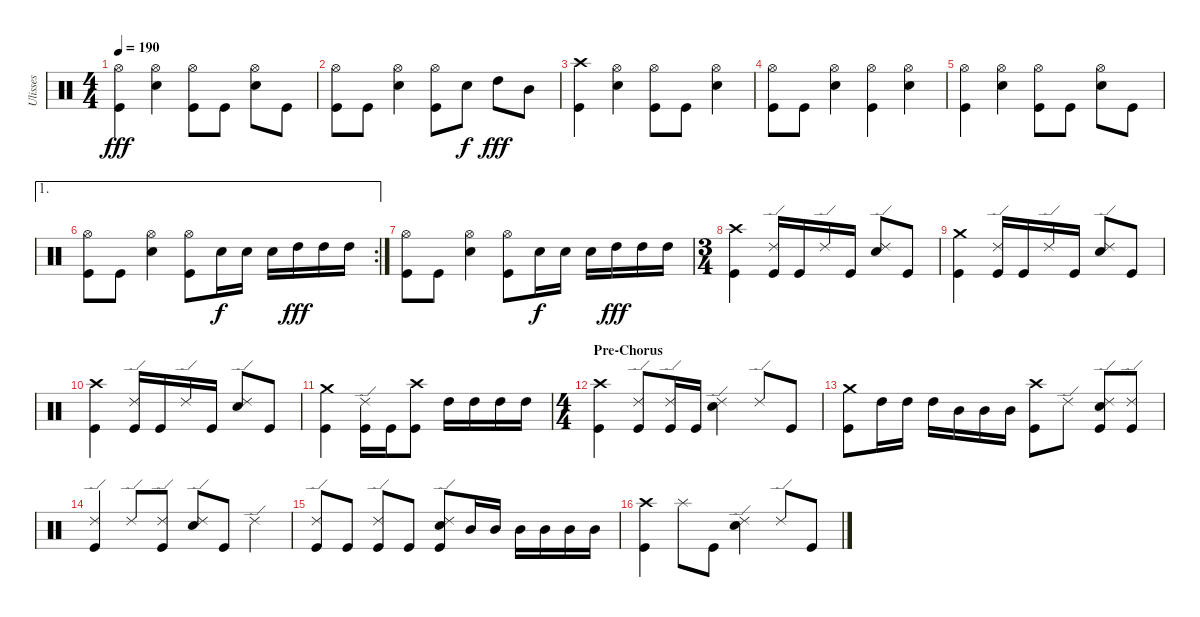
\track ("Ulisses" "Ulisses") {instrument percussion}
\staff {score}
\articulation defaults
\ts (4 4)
\tempo 190
\clef neutral
\ks c
("Hi-Hat (open)" "Kick (hit)").4{dy fff} ("Hi-Hat (open)" "Electric Snare (hit)").4 ("Hi-Hat (open)" "Kick (hit)").8 "Kick (hit)".8 ("Hi-Hat (open)" "Electric Snare (hit)").8 "Kick (hit)".8 |
("Hi-Hat (open)" "Kick (hit)").8 "Kick (hit)".8 ("Hi-Hat (open)" "Electric Snare (hit)").4 ("Hi-Hat (open)" "Kick (hit)").8 "Electric Snare (hit)".8{dy f} "High Tom (hit)".8{dy fff} "Mid Tom (hit)".8 |
("Crash high (hit)" "Kick (hit)").4 ("Hi-Hat (open)" "Electric Snare (hit)").4 ("Hi-Hat (open)" "Kick (hit)").8 "Kick (hit)".8 ("Hi-Hat (open)" "Electric Snare (hit)").4 |
("Hi-Hat (open)" "Kick (hit)").8 "Kick (hit)".8 ("Hi-Hat (open)" "Electric Snare (hit)").4 ("Hi-Hat (open)" "Kick (hit)").4 ("Hi-Hat (open)" "Electric Snare (hit)").4 |
("Hi-Hat (open)" "Kick (hit)").4 ("Hi-Hat (open)" "Electric Snare (hit)").4 ("Hi-Hat (open)" "Kick (hit)").8 "Kick (hit)".8 ("Hi-Hat (open)" "Electric Snare (hit)").8 "Kick (hit)".8 |
\ae 1
\rc 2
("Hi-Hat (open)" "Kick (hit)").8 "Kick (hit)".8 ("Hi-Hat (open)" "Electric Snare (hit)").4 ("Hi-Hat (open)" "Kick (hit)").8 "Electric Snare (hit)".16{dy f} "Electric Snare (hit)".16 "Electric Snare (hit)".16 "High Tom (hit)".16{dy fff} "High Tom (hit)".16 "High Tom (hit)".16 |
("Hi-Hat (open)" "Kick (hit)").8 "Kick (hit)".8 ("Hi-Hat (open)" "Electric Snare (hit)").4 ("Hi-Hat (open)" "Kick (hit)").8 "Electric Snare (hit)".16{dy f} "Electric Snare (hit)".16 "Electric Snare (hit)".16 "High Tom (hit)".16{dy fff} "High Tom (hit)".16 "High Tom (hit)".16 |
\ts (3 4)
("Crash high (hit)" "Kick (hit)").4 ("Ride (edge) 2" "Kick (hit)").16 "Kick (hit)".16 "Ride (edge) 2".16 "Kick (hit)".16 ("Ride (edge) 2" "Electric Snare (hit)").8 "Kick (hit)".8 |
("Crash medium (hit)" "Kick (hit)").4 ("Ride (edge) 2" "Kick (hit)").16 "Kick (hit)".16 "Ride (edge) 2".16 "Kick (hit)".16 ("Ride (edge) 2" "Electric Snare (hit)").8 "Kick (hit)".8 |
("Crash high (hit)" "Kick (hit)").4 ("Ride (edge) 2" "Kick (hit)").16 "Kick (hit)".16 "Ride (edge) 2".16 "Kick (hit)".16 ("Ride (edge) 2" "Electric Snare (hit)").8 "Kick (hit)".8 |
("Crash medium (hit)" "Kick (hit)").4 ("Ride (edge) 2" "Kick (hit)").16 "Kick (hit)".16 ("Crash high (hit)" "Kick (hit)").8 "High Tom (hit)".16 "High Tom (hit)".16 "High Tom (hit)".16 "High Tom (hit)".16 |
\ts (4 4)
\section ("" "Pre-Chorus")
("Crash high (hit)" "Kick (hit)").4 ("Ride (edge) 2" "Kick (hit)").8 ("Ride (edge) 2" "Kick (hit)").16 "Kick (hit)".16 ("Ride (edge) 2" "Electric Snare (hit)").4 "Ride (edge) 2".8 "Kick (hit)".8 |
("Crash medium (hit)" "Kick (hit)").8 "High Tom (hit)".16 "High Tom (hit)".16 "High Tom (hit)".16 "Mid Tom (hit)".16 "Mid Tom (hit)".16 "Mid Tom (hit)".16 ("Crash high (hit)" "Kick (hit)").8 "Ride (edge) 2".8 ("Ride (edge) 2" "Electric Snare (hit)" "Kick (hit)").8 ("Ride (edge) 2" "Kick (hit)").8 |
("Ride (edge) 2" "Kick (hit)").4 "Ride (edge) 2".8 ("Ride (edge) 2" "Kick (hit)").8 ("Ride (edge) 2" "Electric Snare (hit)").8 "Kick (hit)".8 "Ride (edge) 2".4 |
("Ride (edge) 2" "Kick (hit)").8 "Kick (hit)".8 ("Ride (edge) 2" "Kick (hit)").8 "Kick (hit)".8 ("Ride (edge) 2" "Electric Snare (hit)" "Kick (hit)").8 "Mid Tom (hit)".16 "Mid Tom (hit)".16 "Mid Tom (hit)".16 "Mid Tom (hit)".16 "Mid Tom (hit)".16 "Mid Tom (hit)".16 |
("Crash high (hit)" "Kick (hit)").4 "Splash (hit)".8 "Kick (hit)".8 ("Ride (edge) 2" "Electric Snare (hit)").4 "Ride (edge) 2".8 "Kick (hit)".8
